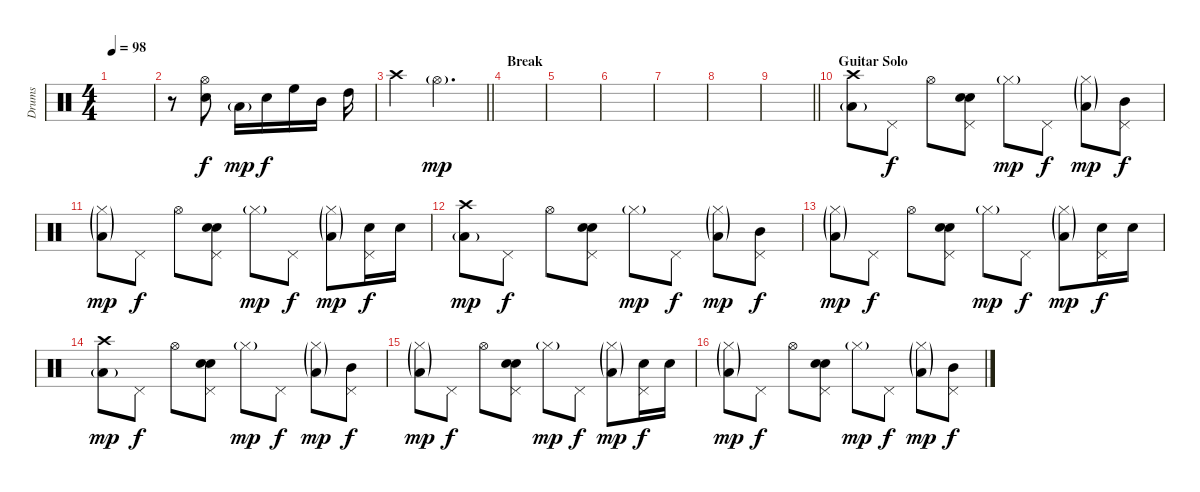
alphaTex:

\track ("Drums" "Drums") {instrument percussion}
\staff {score}
\articulation defaults
\ts (4 4)
\tempo 98
\clef neutral
\ks c
|
r.8 ("Hi-Hat (open)" "Snare (hit) 2").8 "Low Tom (hit)"{g}.16{dy mp} "Snare (hit) 2".16{dy f} "High Floor Tom (hit)".16 "Mid Tom (hit)".16 "High Tom (hit)".16 |
\barLineRight lightlight "Crash high (hit)".4 "Hi-Hat (open)"{g}.2{d dy mp}
|
\section ("" "Break")
|
|
|
|
|
\barLineRight lightlight
|
\section ("" "Guitar Solo")
("Crash high (hit)" "Low Tom (hit)"{g}).8 "Pedal Hi-Hat (hit)".8{dy f} "Hi-Hat (open)".8 ("Pedal Hi-Hat (hit)" "Snare (hit) 2" "Snare (hit) 2").8 "Hi-Hat (closed)"{g}.8{dy mp} "Pedal Hi-Hat (hit)".8{dy f} ("Hi-Hat (closed)"{g} "Low Tom (hit)"{g}).8{dy mp} ("Pedal Hi-Hat (hit)" "Mid Tom (hit)").8{dy f} |
("Hi-Hat (closed)"{g} "Low Tom (hit)"{g}).8{dy mp} "Pedal Hi-Hat (hit)".8{dy f} "Hi-Hat (open)".8 ("Pedal Hi-Hat (hit)" "Snare (hit) 2" "Snare (hit) 2").8 "Hi-Hat (closed)"{g}.8{dy mp} "Pedal Hi-Hat (hit)".8{dy f} ("Hi-Hat (closed)"{g} "Low Tom (hit)"{g}).8{dy mp} ("Pedal Hi-Hat (hit)" "Snare (hit) 2").16{dy f} "Snare (hit) 2".16 |
("Crash high (hit)" "Low Tom (hit)"{g}).8{dy mp} "Pedal Hi-Hat (hit)".8{dy f} "Hi-Hat (open)".8 ("Pedal Hi-Hat (hit)" "Snare (hit) 2" "Snare (hit) 2").8 "Hi-Hat (closed)"{g}.8{dy mp} "Pedal Hi-Hat (hit)".8{dy f} ("Hi-Hat (closed)"{g} "Low Tom (hit)"{g}).8{dy mp} ("Pedal Hi-Hat (hit)" "Mid Tom (hit)").8{dy f} |
("Hi-Hat (closed)"{g} "Low Tom (hit)"{g}).8{dy mp} "Pedal Hi-Hat (hit)".8{dy f} "Hi-Hat (open)".8 ("Pedal Hi-Hat (hit)" "Snare (hit) 2" "Snare (hit) 2").8 "Hi-Hat (closed)"{g}.8{dy mp} "Pedal Hi-Hat (hit)".8{dy f} ("Hi-Hat (closed)"{g} "Low Tom (hit)"{g}).8{dy mp} ("Pedal Hi-Hat (hit)" "Snare (hit) 2").16{dy f} "Snare (hit) 2".16 |
("Crash high (hit)" "Low Tom (hit)"{g}).8{dy mp} "Pedal Hi-Hat (hit)".8{dy f} "Hi-Hat (open)".8 ("Pedal Hi-Hat (hit)" "Snare (hit) 2" "Snare (hit) 2").8 "Hi-Hat (closed)"{g}.8{dy mp} "Pedal Hi-Hat (hit)".8{dy f} ("Hi-Hat (closed)"{g} "Low Tom (hit)"{g}).8{dy mp} ("Pedal Hi-Hat (hit)" "Mid Tom (hit)").8{dy f} |
("Hi-Hat (closed)"{g} "Low Tom (hit)"{g}).8{dy mp} "Pedal Hi-Hat (hit)".8{dy f} "Hi-Hat (open)".8 ("Pedal Hi-Hat (hit)" "Snare (hit) 2" "Snare (hit) 2").8 "Hi-Hat (closed)"{g}.8{dy mp} "Pedal Hi-Hat (hit)".8{dy f} ("Hi-Hat (closed)"{g} "Low Tom (hit)"{g}).8{dy mp} ("Pedal Hi-Hat (hit)" "Snare (hit) 2").16{dy f} "Snare (hit) 2".16 |
("Hi-Hat (closed)"{g} "Low Tom (hit)"{g}).8{dy mp} "Pedal Hi-Hat (hit)".8{dy f} "Hi-Hat (open)".8 ("Pedal Hi-Hat (hit)" "Snare (hit) 2" "Snare (hit) 2").8 "Hi-Hat (closed)"{g}.8{dy mp} "Pedal Hi-Hat (hit)".8{dy f} ("Hi-Hat (closed)"{g} "Low Tom (hit)"{g}).8{dy mp} ("Pedal Hi-Hat (hit)" "Mid Tom (hit)").8{dy f}
